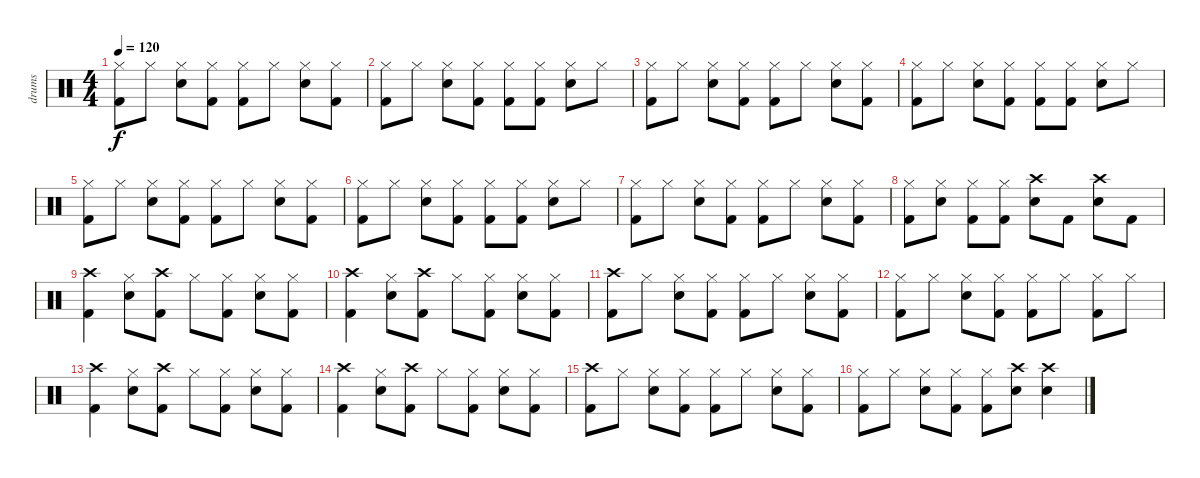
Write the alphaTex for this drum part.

\track ("drums" "drums") {instrument percussion}
\staff {score}
\articulation defaults
\ts (4 4)
\tempo 120
\clef neutral
\ks c
("Hi-Hat (closed)" "Kick (hit) 2").8{dy f} "Hi-Hat (closed)".8 ("Hi-Hat (closed)" "Snare (hit) 2").8 ("Hi-Hat (closed)" "Kick (hit) 2").8 ("Hi-Hat (closed)" "Kick (hit) 2").8 "Hi-Hat (closed)".8 ("Hi-Hat (closed)" "Snare (hit) 2").8 ("Hi-Hat (closed)" "Kick (hit) 2").8 |
("Hi-Hat (closed)" "Kick (hit) 2").8 "Hi-Hat (closed)".8 ("Hi-Hat (closed)" "Snare (hit) 2").8 ("Hi-Hat (closed)" "Kick (hit) 2").8 ("Hi-Hat (closed)" "Kick (hit) 2").8 ("Hi-Hat (closed)" "Kick (hit) 2").8 ("Hi-Hat (closed)" "Snare (hit) 2").8 "Hi-Hat (closed)".8 |
("Hi-Hat (closed)" "Kick (hit) 2").8 "Hi-Hat (closed)".8 ("Hi-Hat (closed)" "Snare (hit) 2").8 ("Hi-Hat (closed)" "Kick (hit) 2").8 ("Hi-Hat (closed)" "Kick (hit) 2").8 "Hi-Hat (closed)".8 ("Hi-Hat (closed)" "Snare (hit) 2").8 ("Hi-Hat (closed)" "Kick (hit) 2").8 |
("Hi-Hat (closed)" "Kick (hit) 2").8 "Hi-Hat (closed)".8 ("Hi-Hat (closed)" "Snare (hit) 2").8 ("Hi-Hat (closed)" "Kick (hit) 2").8 ("Hi-Hat (closed)" "Kick (hit) 2").8 ("Hi-Hat (closed)" "Kick (hit) 2").8 ("Hi-Hat (closed)" "Snare (hit) 2").8 "Hi-Hat (closed)".8 |
("Hi-Hat (closed)" "Kick (hit) 2").8 "Hi-Hat (closed)".8 ("Hi-Hat (closed)" "Snare (hit) 2").8 ("Hi-Hat (closed)" "Kick (hit) 2").8 ("Hi-Hat (closed)" "Kick (hit) 2").8 "Hi-Hat (closed)".8 ("Hi-Hat (closed)" "Snare (hit) 2").8 ("Hi-Hat (closed)" "Kick (hit) 2").8 |
("Hi-Hat (closed)" "Kick (hit) 2").8 "Hi-Hat (closed)".8 ("Hi-Hat (closed)" "Snare (hit) 2").8 ("Hi-Hat (closed)" "Kick (hit) 2").8 ("Hi-Hat (closed)" "Kick (hit) 2").8 ("Hi-Hat (closed)" "Kick (hit) 2").8 ("Hi-Hat (closed)" "Snare (hit) 2").8 "Hi-Hat (closed)".8 |
("Hi-Hat (closed)" "Kick (hit) 2").8 "Hi-Hat (closed)".8 ("Hi-Hat (closed)" "Snare (hit) 2").8 ("Hi-Hat (closed)" "Kick (hit) 2").8 ("Hi-Hat (closed)" "Kick (hit) 2").8 "Hi-Hat (closed)".8 ("Hi-Hat (closed)" "Snare (hit) 2").8 ("Hi-Hat (closed)" "Kick (hit) 2").8 |
("Hi-Hat (closed)" "Kick (hit) 2").8 ("Hi-Hat (closed)" "Snare (hit) 2").8 ("Hi-Hat (closed)" "Kick (hit) 2").8 ("Hi-Hat (closed)" "Kick (hit) 2").8 ("Crash high (hit)" "Snare (hit) 2").8 "Kick (hit) 2".8 ("Crash high (hit)" "Snare (hit) 2").8 "Kick (hit) 2".8 |
("Crash high (hit)" "Kick (hit) 2").4 ("Hi-Hat (closed)" "Snare (hit) 2").8 ("Kick (hit) 2" "Crash high (hit)").8 "Hi-Hat (closed)".8 ("Kick (hit) 2" "Hi-Hat (closed)").8 ("Hi-Hat (closed)" "Snare (hit) 2").8 ("Hi-Hat (closed)" "Kick (hit) 2").8 |
("Crash high (hit)" "Kick (hit) 2").4 ("Hi-Hat (closed)" "Snare (hit) 2").8 ("Kick (hit) 2" "Crash high (hit)").8 "Hi-Hat (closed)".8 ("Kick (hit) 2" "Hi-Hat (closed)").8 ("Hi-Hat (closed)" "Snare (hit) 2").8 ("Hi-Hat (closed)" "Kick (hit) 2").8 |
("Crash high (hit)" "Kick (hit) 2").8 "Hi-Hat (closed)".8 ("Hi-Hat (closed)" "Snare (hit) 2").8 ("Hi-Hat (closed)" "Kick (hit) 2").8 ("Hi-Hat (closed)" "Kick (hit) 2").8 "Hi-Hat (closed)".8 ("Hi-Hat (closed)" "Snare (hit) 2").8 ("Hi-Hat (closed)" "Kick (hit) 2").8 |
("Hi-Hat (closed)" "Kick (hit) 2").8 "Hi-Hat (closed)".8 ("Hi-Hat (closed)" "Snare (hit) 2").8 ("Hi-Hat (closed)" "Kick (hit) 2").8 ("Hi-Hat (closed)" "Kick (hit) 2").8 "Hi-Hat (closed)".8 ("Hi-Hat (closed)" "Kick (hit) 2").8 "Hi-Hat (closed)".8 |
("Crash high (hit)" "Kick (hit) 2").4 ("Hi-Hat (closed)" "Snare (hit) 2").8 ("Kick (hit) 2" "Crash high (hit)").8 "Hi-Hat (closed)".8 ("Kick (hit) 2" "Hi-Hat (closed)").8 ("Hi-Hat (closed)" "Snare (hit) 2").8 ("Hi-Hat (closed)" "Kick (hit) 2").8 |
("Crash high (hit)" "Kick (hit) 2").4 ("Hi-Hat (closed)" "Snare (hit) 2").8 ("Kick (hit) 2" "Crash high (hit)").8 "Hi-Hat (closed)".8 ("Kick (hit) 2" "Hi-Hat (closed)").8 ("Hi-Hat (closed)" "Snare (hit) 2").8 ("Hi-Hat (closed)" "Kick (hit) 2").8 |
("Crash high (hit)" "Kick (hit) 2").8 "Hi-Hat (closed)".8 ("Hi-Hat (closed)" "Snare (hit) 2").8 ("Hi-Hat (closed)" "Kick (hit) 2").8 ("Hi-Hat (closed)" "Kick (hit) 2").8 "Hi-Hat (closed)".8 ("Hi-Hat (closed)" "Snare (hit) 2").8 ("Hi-Hat (closed)" "Kick (hit) 2").8 |
("Hi-Hat (closed)" "Kick (hit) 2").8 "Hi-Hat (closed)".8 ("Hi-Hat (closed)" "Snare (hit) 2").8 ("Hi-Hat (closed)" "Kick (hit) 2").8 ("Hi-Hat (closed)" "Kick (hit) 2").8 ("Crash high (hit)" "Snare (hit) 2").8 ("Crash high (hit)" "Snare (hit) 2").4
